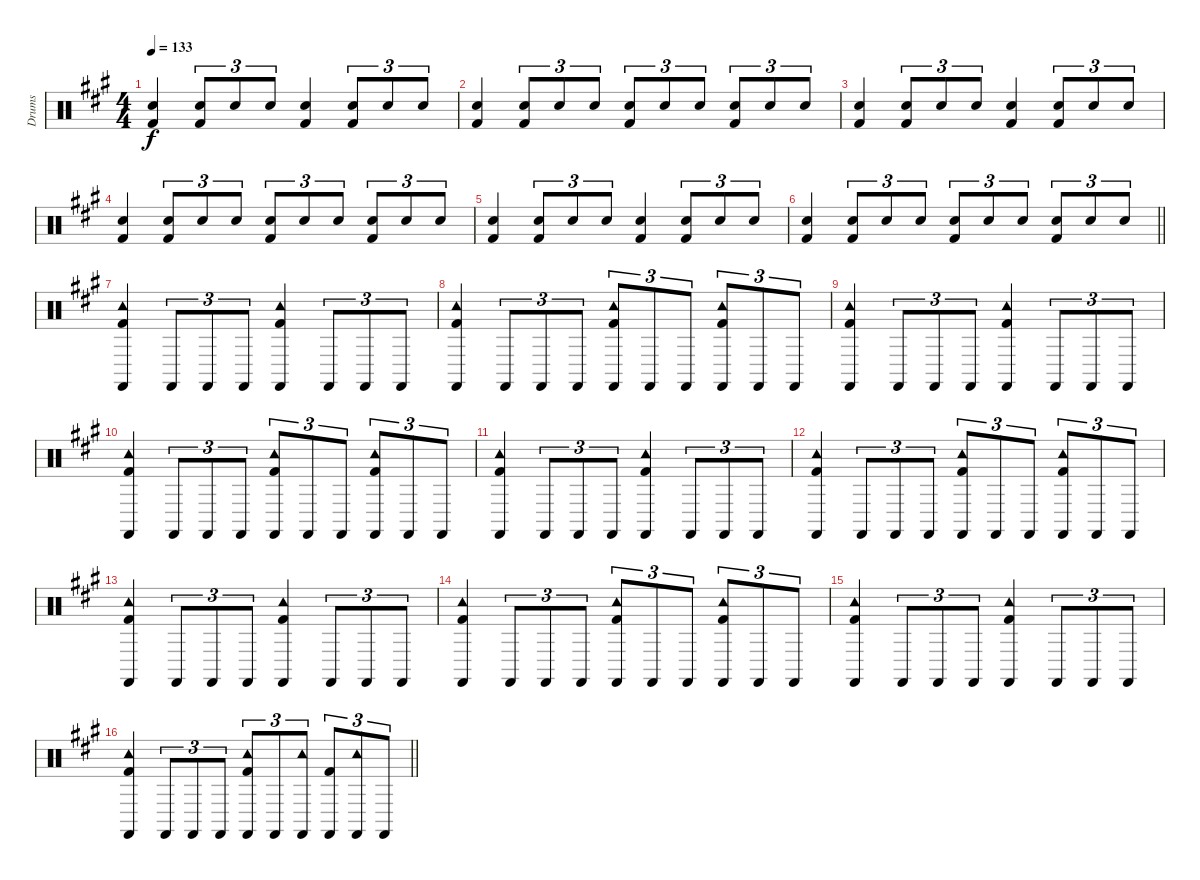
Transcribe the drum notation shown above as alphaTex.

\track ("Drums" "Drums") {instrument percussion}
\staff {score}
\articulation defaults
\ts (4 4)
\tempo 133
\clef neutral
\ks a
("Snare (hit) 2" "Kick (hit) 2").4{dy f} ("Snare (hit) 2" "Kick (hit) 2").8{tu (3 2)} "Snare (hit) 2".8{tu (3 2)} "Snare (hit) 2".8{tu (3 2)} ("Snare (hit) 2" "Kick (hit) 2").4 ("Snare (hit) 2" "Kick (hit) 2").8{tu (3 2)} "Snare (hit) 2".8{tu (3 2)} "Snare (hit) 2".8{tu (3 2)} |
("Snare (hit) 2" "Kick (hit) 2").4 ("Snare (hit) 2" "Kick (hit) 2").8{tu (3 2)} "Snare (hit) 2".8{tu (3 2)} "Snare (hit) 2".8{tu (3 2)} ("Snare (hit) 2" "Kick (hit) 2").8{tu (3 2)} "Snare (hit) 2".8{tu (3 2)} "Snare (hit) 2".8{tu (3 2)} ("Snare (hit) 2" "Kick (hit) 2").8{tu (3 2)} "Snare (hit) 2".8{tu (3 2)} "Snare (hit) 2".8{tu (3 2)} |
("Snare (hit) 2" "Kick (hit) 2").4 ("Snare (hit) 2" "Kick (hit) 2").8{tu (3 2)} "Snare (hit) 2".8{tu (3 2)} "Snare (hit) 2".8{tu (3 2)} ("Snare (hit) 2" "Kick (hit) 2").4 ("Snare (hit) 2" "Kick (hit) 2").8{tu (3 2)} "Snare (hit) 2".8{tu (3 2)} "Snare (hit) 2".8{tu (3 2)} |
("Snare (hit) 2" "Kick (hit) 2").4 ("Snare (hit) 2" "Kick (hit) 2").8{tu (3 2)} "Snare (hit) 2".8{tu (3 2)} "Snare (hit) 2".8{tu (3 2)} ("Snare (hit) 2" "Kick (hit) 2").8{tu (3 2)} "Snare (hit) 2".8{tu (3 2)} "Snare (hit) 2".8{tu (3 2)} ("Snare (hit) 2" "Kick (hit) 2").8{tu (3 2)} "Snare (hit) 2".8{tu (3 2)} "Snare (hit) 2".8{tu (3 2)} |
("Snare (hit) 2" "Kick (hit) 2").4 ("Snare (hit) 2" "Kick (hit) 2").8{tu (3 2)} "Snare (hit) 2".8{tu (3 2)} "Snare (hit) 2".8{tu (3 2)} ("Snare (hit) 2" "Kick (hit) 2").4 ("Snare (hit) 2" "Kick (hit) 2").8{tu (3 2)} "Snare (hit) 2".8{tu (3 2)} "Snare (hit) 2".8{tu (3 2)} |
\barLineRight lightlight
("Snare (hit) 2" "Kick (hit) 2").4 ("Snare (hit) 2" "Kick (hit) 2").8{tu (3 2)} "Snare (hit) 2".8{tu (3 2)} "Snare (hit) 2".8{tu (3 2)} ("Snare (hit) 2" "Kick (hit) 2").8{tu (3 2)} "Snare (hit) 2".8{tu (3 2)} "Snare (hit) 2".8{tu (3 2)} ("Snare (hit) 2" "Kick (hit) 2").8{tu (3 2)} "Snare (hit) 2".8{tu (3 2)} "Snare (hit) 2".8{tu (3 2)} |
("Tambourine (hit)" "Castanets (hit)" "Kick (hit) 2").4 "Castanets (hit)".8{tu (3 2)} "Castanets (hit)".8{tu (3 2)} "Castanets (hit)".8{tu (3 2)} ("Tambourine (hit)" "Castanets (hit)" "Kick (hit) 2").4 "Castanets (hit)".8{tu (3 2)} "Castanets (hit)".8{tu (3 2)} "Castanets (hit)".8{tu (3 2)} |
("Tambourine (hit)" "Castanets (hit)" "Kick (hit) 2").4 "Castanets (hit)".8{tu (3 2)} "Castanets (hit)".8{tu (3 2)} "Castanets (hit)".8{tu (3 2)} ("Tambourine (hit)" "Castanets (hit)" "Kick (hit) 2").8{tu (3 2)} "Castanets (hit)".8{tu (3 2)} "Castanets (hit)".8{tu (3 2)} ("Tambourine (hit)" "Castanets (hit)" "Kick (hit) 2").8{tu (3 2)} "Castanets (hit)".8{tu (3 2)} "Castanets (hit)".8{tu (3 2)} |
("Tambourine (hit)" "Castanets (hit)" "Kick (hit) 2").4 "Castanets (hit)".8{tu (3 2)} "Castanets (hit)".8{tu (3 2)} "Castanets (hit)".8{tu (3 2)} ("Tambourine (hit)" "Castanets (hit)" "Kick (hit) 2").4 "Castanets (hit)".8{tu (3 2)} "Castanets (hit)".8{tu (3 2)} "Castanets (hit)".8{tu (3 2)} |
("Tambourine (hit)" "Castanets (hit)" "Kick (hit) 2").4 "Castanets (hit)".8{tu (3 2)} "Castanets (hit)".8{tu (3 2)} "Castanets (hit)".8{tu (3 2)} ("Tambourine (hit)" "Castanets (hit)" "Kick (hit) 2").8{tu (3 2)} "Castanets (hit)".8{tu (3 2)} "Castanets (hit)".8{tu (3 2)} ("Tambourine (hit)" "Castanets (hit)" "Kick (hit) 2").8{tu (3 2)} "Castanets (hit)".8{tu (3 2)} "Castanets (hit)".8{tu (3 2)} |
("Tambourine (hit)" "Castanets (hit)" "Kick (hit) 2").4 "Castanets (hit)".8{tu (3 2)} "Castanets (hit)".8{tu (3 2)} "Castanets (hit)".8{tu (3 2)} ("Tambourine (hit)" "Castanets (hit)" "Kick (hit) 2").4 "Castanets (hit)".8{tu (3 2)} "Castanets (hit)".8{tu (3 2)} "Castanets (hit)".8{tu (3 2)} |
("Tambourine (hit)" "Castanets (hit)" "Kick (hit) 2").4 "Castanets (hit)".8{tu (3 2)} "Castanets (hit)".8{tu (3 2)} "Castanets (hit)".8{tu (3 2)} ("Tambourine (hit)" "Castanets (hit)" "Kick (hit) 2").8{tu (3 2)} "Castanets (hit)".8{tu (3 2)} "Castanets (hit)".8{tu (3 2)} ("Tambourine (hit)" "Castanets (hit)" "Kick (hit) 2").8{tu (3 2)} "Castanets (hit)".8{tu (3 2)} "Castanets (hit)".8{tu (3 2)} |
("Tambourine (hit)" "Castanets (hit)" "Kick (hit) 2").4 "Castanets (hit)".8{tu (3 2)} "Castanets (hit)".8{tu (3 2)} "Castanets (hit)".8{tu (3 2)} ("Tambourine (hit)" "Castanets (hit)" "Kick (hit) 2").4 "Castanets (hit)".8{tu (3 2)} "Castanets (hit)".8{tu (3 2)} "Castanets (hit)".8{tu (3 2)} |
("Tambourine (hit)" "Castanets (hit)" "Kick (hit) 2").4 "Castanets (hit)".8{tu (3 2)} "Castanets (hit)".8{tu (3 2)} "Castanets (hit)".8{tu (3 2)} ("Tambourine (hit)" "Castanets (hit)" "Kick (hit) 2").8{tu (3 2)} "Castanets (hit)".8{tu (3 2)} "Castanets (hit)".8{tu (3 2)} ("Tambourine (hit)" "Castanets (hit)" "Kick (hit) 2").8{tu (3 2)} "Castanets (hit)".8{tu (3 2)} "Castanets (hit)".8{tu (3 2)} |
("Tambourine (hit)" "Castanets (hit)" "Kick (hit) 2").4 "Castanets (hit)".8{tu (3 2)} "Castanets (hit)".8{tu (3 2)} "Castanets (hit)".8{tu (3 2)} ("Tambourine (hit)" "Castanets (hit)" "Kick (hit) 2").4 "Castanets (hit)".8{tu (3 2)} "Castanets (hit)".8{tu (3 2)} "Castanets (hit)".8{tu (3 2)} |
\barLineRight lightlight
("Tambourine (hit)" "Castanets (hit)" "Kick (hit) 2").4 "Castanets (hit)".8{tu (3 2)} "Castanets (hit)".8{tu (3 2)} "Castanets (hit)".8{tu (3 2)} ("Tambourine (hit)" "Castanets (hit)" "Kick (hit) 2").8{tu (3 2)} "Castanets (hit)".8{tu (3 2)} ("Tambourine (hit)" "Castanets (hit)").8{tu (3 2)} ("Castanets (hit)" "Kick (hit) 2").8{tu (3 2)} ("Tambourine (hit)" "Castanets (hit)").8{tu (3 2)} "Castanets (hit)".8{tu (3 2)}
